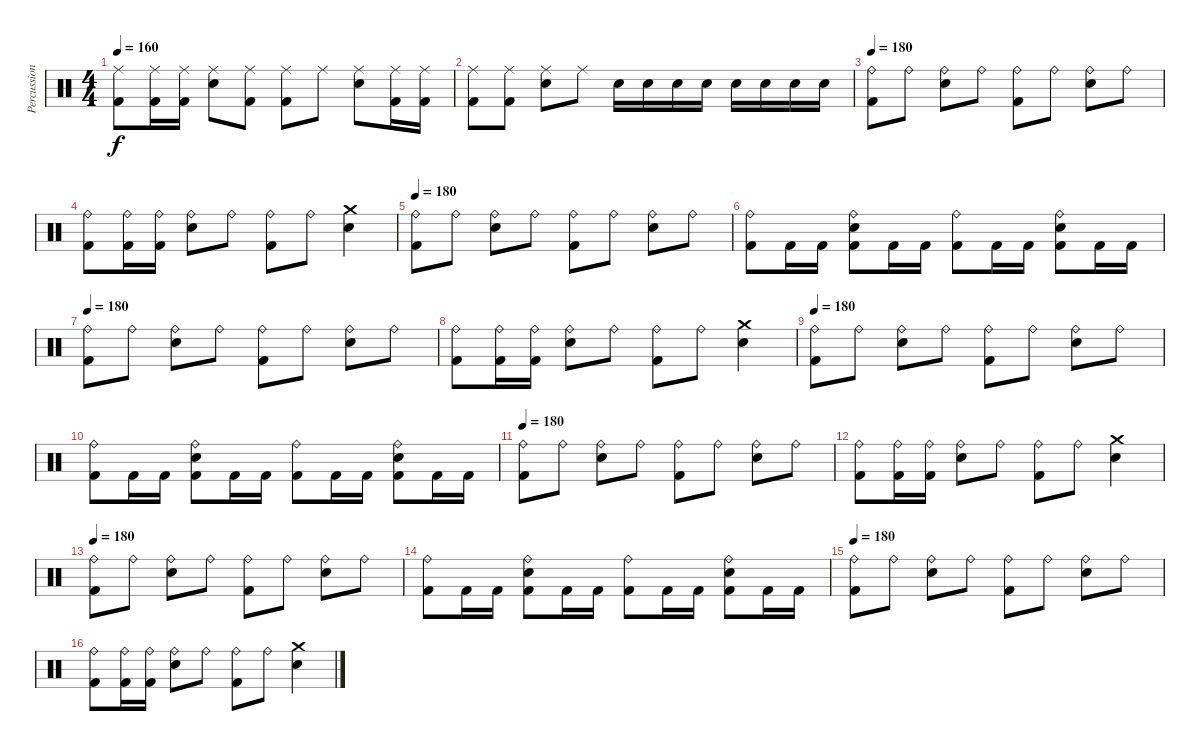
\track ("Percussions" "Percussion") {instrument percussion}
\staff {score}
\articulation defaults
\ts (4 4)
\tempo 160
\clef neutral
\ks c
("Ride (middle)" "Kick (hit) 2").8{dy f} ("Ride (middle)" "Kick (hit) 2").16 ("Ride (middle)" "Kick (hit) 2").16 ("Ride (middle)" "Electric Snare (hit)").8 ("Ride (middle)" "Kick (hit) 2").8 ("Ride (middle)" "Kick (hit) 2").8 "Ride (middle)".8 ("Ride (middle)" "Electric Snare (hit)").8 ("Ride (middle)" "Kick (hit) 2").16 ("Ride (middle)" "Kick (hit) 2").16 |
("Ride (middle)" "Kick (hit) 2").8 ("Ride (middle)" "Kick (hit) 2").8 ("Ride (middle)" "Electric Snare (hit)").8 "Ride (middle)".8 "Electric Snare (hit)".16 "Electric Snare (hit)".16 "Snare (hit) 2".16 "Snare (hit) 2".16 "Electric Snare (hit)".16 "Electric Snare (hit)".16 "Snare (hit) 2".16 "Snare (hit) 2".16 |
\tempo 180
("Ride (bell)" "Kick (hit) 2").8 "Ride (bell)".8 ("Ride (bell)" "Electric Snare (hit)").8 "Ride (bell)".8 ("Ride (bell)" "Kick (hit) 2").8 "Ride (bell)".8 ("Ride (bell)" "Electric Snare (hit)").8 "Ride (bell)".8 |
("Ride (bell)" "Kick (hit) 2").8 ("Ride (bell)" "Kick (hit) 2").16 ("Ride (bell)" "Kick (hit) 2").16 ("Ride (bell)" "Electric Snare (hit)").8 "Ride (bell)".8 ("Ride (bell)" "Kick (hit) 2").8 "Ride (bell)".8 ("Crash medium (hit)" "Electric Snare (hit)").4 |
\tempo 180
("Ride (bell)" "Kick (hit) 2").8 "Ride (bell)".8 ("Ride (bell)" "Electric Snare (hit)").8 "Ride (bell)".8 ("Ride (bell)" "Kick (hit) 2").8 "Ride (bell)".8 ("Ride (bell)" "Electric Snare (hit)").8 "Ride (bell)".8 |
("Ride (bell)" "Kick (hit) 2").8 "Kick (hit) 2".16 "Kick (hit) 2".16 ("Ride (bell)" "Electric Snare (hit)" "Kick (hit) 2").8 "Kick (hit) 2".16 "Kick (hit) 2".16 ("Ride (bell)" "Kick (hit) 2").8 "Kick (hit) 2".16 "Kick (hit) 2".16 ("Ride (bell)" "Electric Snare (hit)" "Kick (hit) 2").8 "Kick (hit) 2".16 "Kick (hit) 2".16 |
\tempo 180
("Ride (bell)" "Kick (hit) 2").8 "Ride (bell)".8 ("Ride (bell)" "Electric Snare (hit)").8 "Ride (bell)".8 ("Ride (bell)" "Kick (hit) 2").8 "Ride (bell)".8 ("Ride (bell)" "Electric Snare (hit)").8 "Ride (bell)".8 |
("Ride (bell)" "Kick (hit) 2").8 ("Ride (bell)" "Kick (hit) 2").16 ("Ride (bell)" "Kick (hit) 2").16 ("Ride (bell)" "Electric Snare (hit)").8 "Ride (bell)".8 ("Ride (bell)" "Kick (hit) 2").8 "Ride (bell)".8 ("Crash medium (hit)" "Electric Snare (hit)").4 |
\tempo 180
("Ride (bell)" "Kick (hit) 2").8 "Ride (bell)".8 ("Ride (bell)" "Electric Snare (hit)").8 "Ride (bell)".8 ("Ride (bell)" "Kick (hit) 2").8 "Ride (bell)".8 ("Ride (bell)" "Electric Snare (hit)").8 "Ride (bell)".8 |
("Ride (bell)" "Kick (hit) 2").8 "Kick (hit) 2".16 "Kick (hit) 2".16 ("Ride (bell)" "Electric Snare (hit)" "Kick (hit) 2").8 "Kick (hit) 2".16 "Kick (hit) 2".16 ("Ride (bell)" "Kick (hit) 2").8 "Kick (hit) 2".16 "Kick (hit) 2".16 ("Ride (bell)" "Electric Snare (hit)" "Kick (hit) 2").8 "Kick (hit) 2".16 "Kick (hit) 2".16 |
\tempo 180
("Ride (bell)" "Kick (hit) 2").8 "Ride (bell)".8 ("Ride (bell)" "Electric Snare (hit)").8 "Ride (bell)".8 ("Ride (bell)" "Kick (hit) 2").8 "Ride (bell)".8 ("Ride (bell)" "Electric Snare (hit)").8 "Ride (bell)".8 |
("Ride (bell)" "Kick (hit) 2").8 ("Ride (bell)" "Kick (hit) 2").16 ("Ride (bell)" "Kick (hit) 2").16 ("Ride (bell)" "Electric Snare (hit)").8 "Ride (bell)".8 ("Ride (bell)" "Kick (hit) 2").8 "Ride (bell)".8 ("Crash medium (hit)" "Electric Snare (hit)").4 |
\tempo 180
("Ride (bell)" "Kick (hit) 2").8 "Ride (bell)".8 ("Ride (bell)" "Electric Snare (hit)").8 "Ride (bell)".8 ("Ride (bell)" "Kick (hit) 2").8 "Ride (bell)".8 ("Ride (bell)" "Electric Snare (hit)").8 "Ride (bell)".8 |
("Ride (bell)" "Kick (hit) 2").8 "Kick (hit) 2".16 "Kick (hit) 2".16 ("Ride (bell)" "Electric Snare (hit)" "Kick (hit) 2").8 "Kick (hit) 2".16 "Kick (hit) 2".16 ("Ride (bell)" "Kick (hit) 2").8 "Kick (hit) 2".16 "Kick (hit) 2".16 ("Ride (bell)" "Electric Snare (hit)" "Kick (hit) 2").8 "Kick (hit) 2".16 "Kick (hit) 2".16 |
\tempo 180
("Ride (bell)" "Kick (hit) 2").8 "Ride (bell)".8 ("Ride (bell)" "Electric Snare (hit)").8 "Ride (bell)".8 ("Ride (bell)" "Kick (hit) 2").8 "Ride (bell)".8 ("Ride (bell)" "Electric Snare (hit)").8 "Ride (bell)".8 |
("Ride (bell)" "Kick (hit) 2").8 ("Ride (bell)" "Kick (hit) 2").16 ("Ride (bell)" "Kick (hit) 2").16 ("Ride (bell)" "Electric Snare (hit)").8 "Ride (bell)".8 ("Ride (bell)" "Kick (hit) 2").8 "Ride (bell)".8 ("Crash medium (hit)" "Electric Snare (hit)").4
